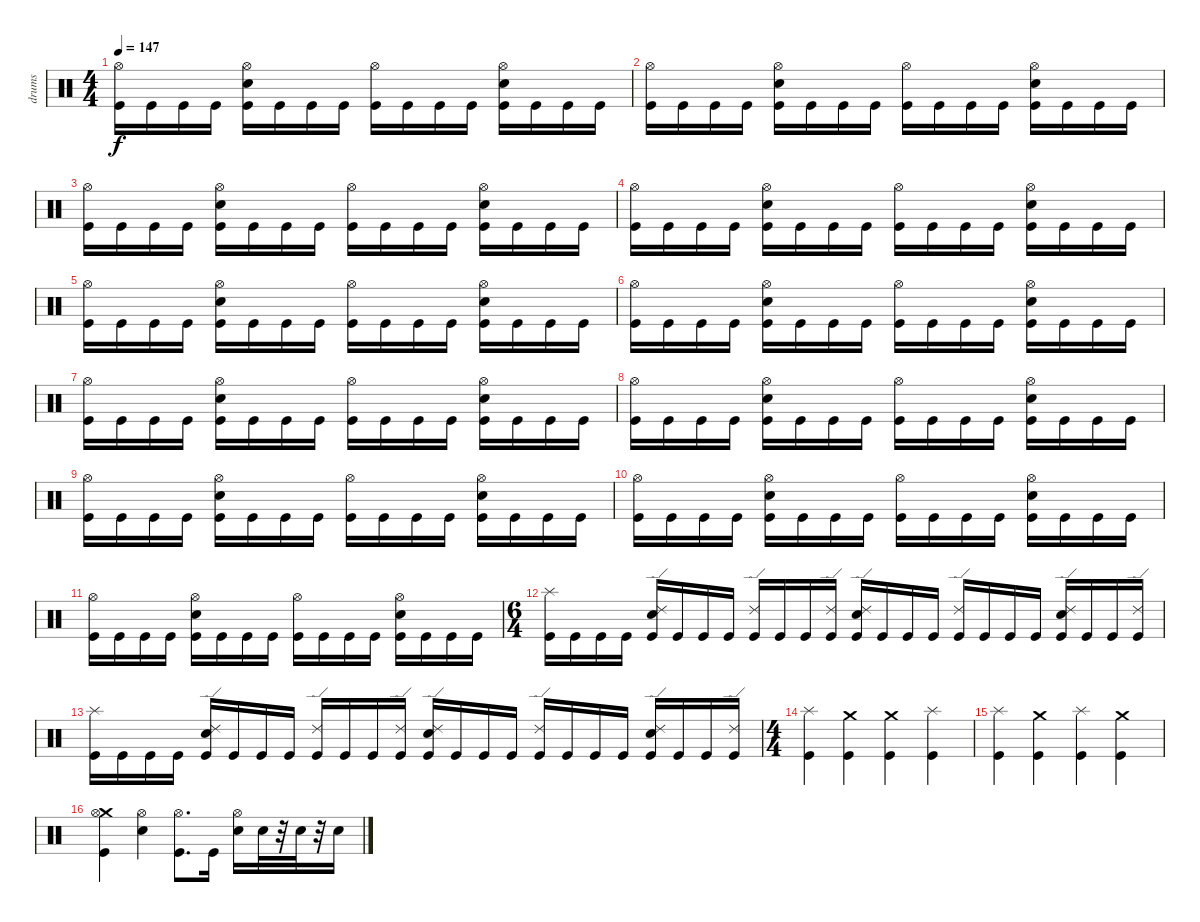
\track ("drums" "drums") {instrument percussion}
\staff {score}
\articulation defaults
\ts (4 4)
\tempo 147
\clef neutral
\ks c
("Hi-Hat (open)" "Kick (hit)").16{dy f} "Kick (hit)".16 "Kick (hit)".16 "Kick (hit)".16 ("Hi-Hat (open)" "Kick (hit)" "Snare (hit) 2").16 "Kick (hit)".16 "Kick (hit)".16 "Kick (hit)".16 ("Kick (hit)" "Hi-Hat (open)").16 "Kick (hit)".16 "Kick (hit)".16 "Kick (hit)".16 ("Kick (hit)" "Hi-Hat (open)" "Snare (hit) 2").16 "Kick (hit)".16 "Kick (hit)".16 "Kick (hit)".16 |
("Kick (hit)" "Hi-Hat (open)").16 "Kick (hit)".16 "Kick (hit)".16 "Kick (hit)".16 ("Snare (hit) 2" "Kick (hit)" "Hi-Hat (open)").16 "Kick (hit)".16 "Kick (hit)".16 "Kick (hit)".16 ("Kick (hit)" "Hi-Hat (open)").16 "Kick (hit)".16 "Kick (hit)".16 "Kick (hit)".16 ("Hi-Hat (open)" "Kick (hit)" "Snare (hit) 2").16 "Kick (hit)".16 "Kick (hit)".16 "Kick (hit)".16 |
("Hi-Hat (open)" "Kick (hit)").16 "Kick (hit)".16 "Kick (hit)".16 "Kick (hit)".16 ("Hi-Hat (open)" "Kick (hit)" "Snare (hit) 2").16 "Kick (hit)".16 "Kick (hit)".16 "Kick (hit)".16 ("Kick (hit)" "Hi-Hat (open)").16 "Kick (hit)".16 "Kick (hit)".16 "Kick (hit)".16 ("Snare (hit) 2" "Hi-Hat (open)" "Kick (hit)").16 "Kick (hit)".16 "Kick (hit)".16 "Kick (hit)".16 |
("Kick (hit)" "Hi-Hat (open)").16 "Kick (hit)".16 "Kick (hit)".16 "Kick (hit)".16 ("Hi-Hat (open)" "Snare (hit) 2" "Kick (hit)").16 "Kick (hit)".16 "Kick (hit)".16 "Kick (hit)".16 ("Kick (hit)" "Hi-Hat (open)").16 "Kick (hit)".16 "Kick (hit)".16 "Kick (hit)".16 ("Hi-Hat (open)" "Snare (hit) 2" "Kick (hit)").16 "Kick (hit)".16 "Kick (hit)".16 "Kick (hit)".16 |
("Kick (hit)" "Hi-Hat (open)").16 "Kick (hit)".16 "Kick (hit)".16 "Kick (hit)".16 ("Snare (hit) 2" "Kick (hit)" "Hi-Hat (open)").16 "Kick (hit)".16 "Kick (hit)".16 "Kick (hit)".16 ("Kick (hit)" "Hi-Hat (open)").16 "Kick (hit)".16 "Kick (hit)".16 "Kick (hit)".16 ("Snare (hit) 2" "Hi-Hat (open)" "Kick (hit)").16 "Kick (hit)".16 "Kick (hit)".16 "Kick (hit)".16 |
("Hi-Hat (open)" "Kick (hit)").16 "Kick (hit)".16 "Kick (hit)".16 "Kick (hit)".16 ("Snare (hit) 2" "Hi-Hat (open)" "Kick (hit)").16 "Kick (hit)".16 "Kick (hit)".16 "Kick (hit)".16 ("Kick (hit)" "Hi-Hat (open)").16 "Kick (hit)".16 "Kick (hit)".16 "Kick (hit)".16 ("Hi-Hat (open)" "Snare (hit) 2" "Kick (hit)").16 "Kick (hit)".16 "Kick (hit)".16 "Kick (hit)".16 |
("Kick (hit)" "Hi-Hat (open)").16 "Kick (hit)".16 "Kick (hit)".16 "Kick (hit)".16 ("Snare (hit) 2" "Hi-Hat (open)" "Kick (hit)").16 "Kick (hit)".16 "Kick (hit)".16 "Kick (hit)".16 ("Kick (hit)" "Hi-Hat (open)").16 "Kick (hit)".16 "Kick (hit)".16 "Kick (hit)".16 ("Kick (hit)" "Hi-Hat (open)" "Snare (hit) 2").16 "Kick (hit)".16 "Kick (hit)".16 "Kick (hit)".16 |
("Kick (hit)" "Hi-Hat (open)").16 "Kick (hit)".16 "Kick (hit)".16 "Kick (hit)".16 ("Snare (hit) 2" "Hi-Hat (open)" "Kick (hit)").16 "Kick (hit)".16 "Kick (hit)".16 "Kick (hit)".16 ("Kick (hit)" "Hi-Hat (open)").16 "Kick (hit)".16 "Kick (hit)".16 "Kick (hit)".16 ("Hi-Hat (open)" "Kick (hit)" "Snare (hit) 2").16 "Kick (hit)".16 "Kick (hit)".16 "Kick (hit)".16 |
("Kick (hit)" "Hi-Hat (open)").16 "Kick (hit)".16 "Kick (hit)".16 "Kick (hit)".16 ("Hi-Hat (open)" "Snare (hit) 2" "Kick (hit)").16 "Kick (hit)".16 "Kick (hit)".16 "Kick (hit)".16 ("Kick (hit)" "Hi-Hat (open)").16 "Kick (hit)".16 "Kick (hit)".16 "Kick (hit)".16 ("Kick (hit)" "Snare (hit) 2" "Hi-Hat (open)").16 "Kick (hit)".16 "Kick (hit)".16 "Kick (hit)".16 |
("Kick (hit)" "Hi-Hat (open)").16 "Kick (hit)".16 "Kick (hit)".16 "Kick (hit)".16 ("Kick (hit)" "Snare (hit) 2" "Hi-Hat (open)").16 "Kick (hit)".16 "Kick (hit)".16 "Kick (hit)".16 ("Kick (hit)" "Hi-Hat (open)").16 "Kick (hit)".16 "Kick (hit)".16 "Kick (hit)".16 ("Kick (hit)" "Snare (hit) 2" "Hi-Hat (open)").16 "Kick (hit)".16 "Kick (hit)".16 "Kick (hit)".16 |
("Hi-Hat (open)" "Kick (hit)").16 "Kick (hit)".16 "Kick (hit)".16 "Kick (hit)".16 ("Hi-Hat (open)" "Kick (hit)" "Snare (hit) 2").16 "Kick (hit)".16 "Kick (hit)".16 "Kick (hit)".16 ("Kick (hit)" "Hi-Hat (open)").16 "Kick (hit)".16 "Kick (hit)".16 "Kick (hit)".16 ("Kick (hit)" "Hi-Hat (open)" "Snare (hit) 2").16 "Kick (hit)".16 "Kick (hit)".16 "Kick (hit)".16 |
\ts (6 4)
("Kick (hit)" "Splash (hit)").16 "Kick (hit)".16 "Kick (hit)".16 "Kick (hit)".16 ("Snare (hit) 2" "Kick (hit)" "Ride (edge) 2").16 "Kick (hit)".16 "Kick (hit)".16 "Kick (hit)".16 ("Ride (edge) 2" "Kick (hit)").16 "Kick (hit)".16 "Kick (hit)".16 ("Ride (edge) 2" "Kick (hit)").16 ("Kick (hit)" "Snare (hit) 2" "Ride (edge) 2").16 "Kick (hit)".16 "Kick (hit)".16 "Kick (hit)".16 ("Kick (hit)" "Ride (edge) 2").16 "Kick (hit)".16 "Kick (hit)".16 "Kick (hit)".16 ("Kick (hit)" "Snare (hit) 2" "Ride (edge) 2").16 "Kick (hit)".16 "Kick (hit)".16 ("Ride (edge) 2" "Kick (hit)").16 |
("Splash (hit)" "Kick (hit)").16 "Kick (hit)".16 "Kick (hit)".16 "Kick (hit)".16 ("Kick (hit)" "Snare (hit) 2" "Ride (edge) 2").16 "Kick (hit)".16 "Kick (hit)".16 "Kick (hit)".16 ("Kick (hit)" "Ride (edge) 2").16 "Kick (hit)".16 "Kick (hit)".16 ("Kick (hit)" "Ride (edge) 2").16 ("Snare (hit) 2" "Ride (edge) 2" "Kick (hit)").16 "Kick (hit)".16 "Kick (hit)".16 "Kick (hit)".16 ("Ride (edge) 2" "Kick (hit)").16 "Kick (hit)".16 "Kick (hit)".16 "Kick (hit)".16 ("Kick (hit)" "Snare (hit) 2" "Ride (edge) 2").16 "Kick (hit)".16 "Kick (hit)".16 ("Ride (edge) 2" "Kick (hit)").16 |
\ts (4 4)
("Kick (hit)" "Splash (hit)").4 ("Kick (hit)" "Crash medium (hit)").4 ("Crash medium (hit)" "Kick (hit)").4 ("Kick (hit)" "Splash (hit)").4 |
("Splash (hit)" "Kick (hit)").4 ("Crash medium (hit)" "Kick (hit)").4 ("Splash (hit)" "Kick (hit)").4 ("Crash medium (hit)" "Kick (hit)").4 |
("Crash medium (hit)" "Kick (hit)" "Hi-Hat (open)").4 ("Hi-Hat (open)" "Snare (hit) 2").4 ("Kick (hit)" "Hi-Hat (open)").8{d} "Kick (hit)".16 ("Snare (hit) 2" "Hi-Hat (open)").16 "Snare (hit) 2".32 r.32 "Snare (hit) 2".32 r.32 "Snare (hit) 2".16
